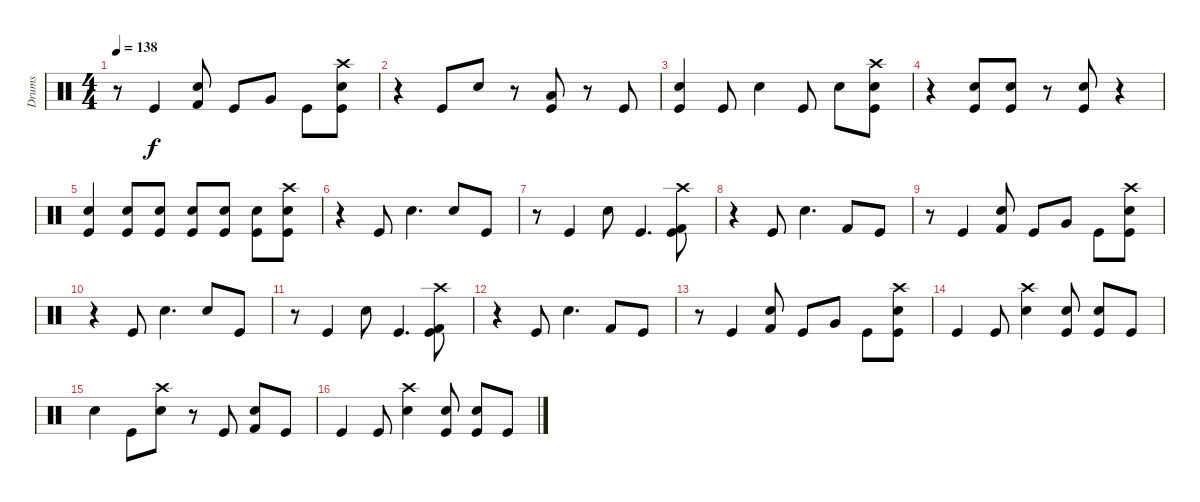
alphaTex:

\track ("Drums" "Drums") {instrument percussion}
\staff {score}
\articulation defaults
\ts (4 4)
\tempo 138
\clef neutral
\ks c
r.8{dy f} "Kick (hit)".4 ("Snare (hit) 2" "Kick (hit) 2").8 "Kick (hit)".8 "Very Low Tom (hit)".8 "Kick (hit)".8 ("Crash high (hit)" "Snare (hit) 2" "Kick (hit)").8 |
r.4 "Kick (hit)".8 "Snare (hit) 2".8 r.8 ("Low Tom (hit)" "Kick (hit)").8 r.8 "Kick (hit)".8 |
("Snare (hit) 2" "Kick (hit)").4 "Kick (hit)".8 "Snare (hit) 2".4 "Kick (hit)".8 "Snare (hit) 2".8 ("Crash high (hit)" "Snare (hit) 2" "Kick (hit)").8 |
r.4 ("Snare (hit) 2" "Kick (hit)").8 ("Snare (hit) 2" "Kick (hit)").8 r.8 ("Snare (hit) 2" "Kick (hit)").8 r.4 |
("Snare (hit) 2" "Kick (hit)").4 ("Snare (hit) 2" "Kick (hit)").8 ("Snare (hit) 2" "Kick (hit)").8 ("Snare (hit) 2" "Kick (hit)").8 ("Snare (hit) 2" "Kick (hit)").8 ("Snare (hit) 2" "Kick (hit)").8 ("Crash high (hit)" "Snare (hit) 2" "Kick (hit)").8 |
r.4 "Kick (hit)".8 "Snare (hit) 2".4{d} "Snare (hit) 2".8 "Kick (hit)".8 |
r.8 "Kick (hit)".4 "Snare (hit) 2".8 "Kick (hit)".4{d} ("Crash high (hit)" "Kick (hit) 2" "Kick (hit)").8 |
r.4 "Kick (hit)".8 "Snare (hit) 2".4{d} "Kick (hit) 2".8 "Kick (hit)".8 |
r.8 "Kick (hit)".4 ("Snare (hit) 2" "Kick (hit) 2").8 "Kick (hit)".8 "Very Low Tom (hit)".8 "Kick (hit)".8 ("Crash high (hit)" "Snare (hit) 2" "Kick (hit)").8 |
r.4 "Kick (hit)".8 "Snare (hit) 2".4{d} "Snare (hit) 2".8 "Kick (hit)".8 |
r.8 "Kick (hit)".4 "Snare (hit) 2".8 "Kick (hit)".4{d} ("Crash high (hit)" "Kick (hit) 2" "Kick (hit)").8 |
r.4 "Kick (hit)".8 "Snare (hit) 2".4{d} "Kick (hit) 2".8 "Kick (hit)".8 |
r.8 "Kick (hit)".4 ("Snare (hit) 2" "Kick (hit) 2").8 "Kick (hit)".8 "Very Low Tom (hit)".8 "Kick (hit)".8 ("Crash high (hit)" "Snare (hit) 2" "Kick (hit)").8 |
"Kick (hit)".4 "Kick (hit)".8 ("Crash high (hit)" "Snare (hit) 2").4 ("Snare (hit) 2" "Kick (hit)").8 ("Snare (hit) 2" "Kick (hit)").8 "Kick (hit)".8 |
"Snare (hit) 2".4 "Kick (hit)".8 ("Crash high (hit)" "Snare (hit) 2").8 r.8 "Kick (hit)".8 ("Snare (hit) 2" "Kick (hit) 2").8 "Kick (hit)".8 |
"Kick (hit)".4 "Kick (hit)".8 ("Crash high (hit)" "Snare (hit) 2").4 ("Snare (hit) 2" "Kick (hit)").8 ("Snare (hit) 2" "Kick (hit)").8 "Kick (hit)".8
